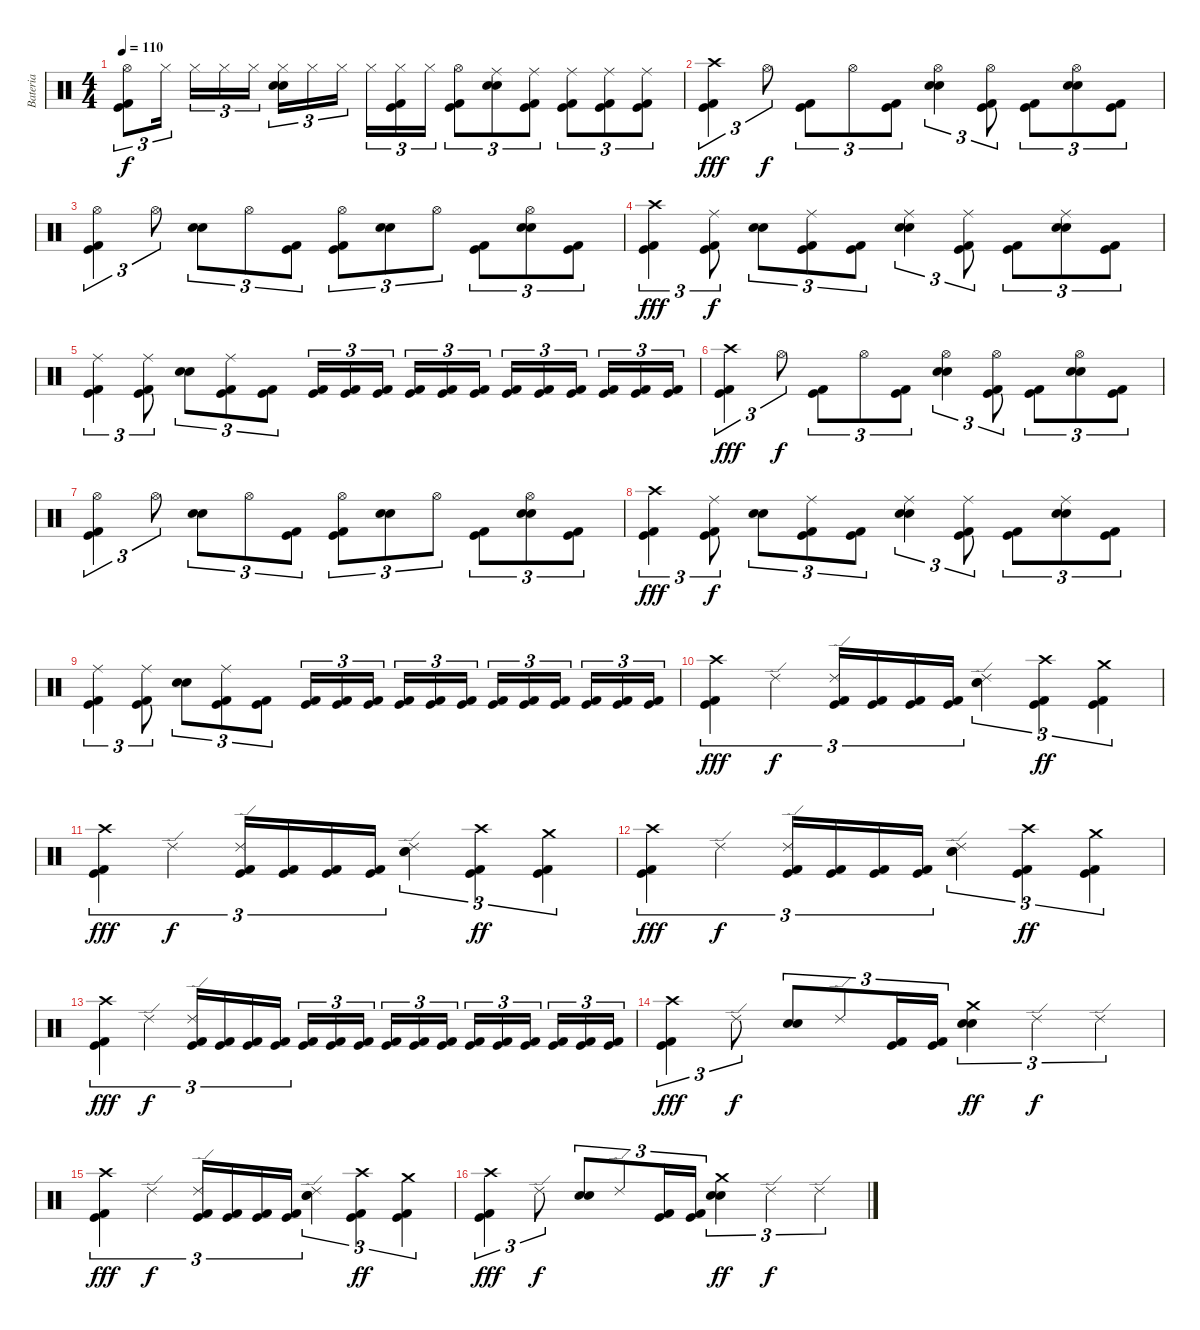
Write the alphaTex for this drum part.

\track ("Bateria" "Bateria") {instrument percussion}
\staff {score}
\articulation defaults
\ts (4 4)
\tempo 110
\clef neutral
\ks c
("Hi-Hat (open)" "Kick (hit) 2" "Kick (hit)").8{tu (3 2) dy f} "Hi-Hat (closed)".16{tu (3 2)} "Hi-Hat (closed)".16{tu (3 2)} "Hi-Hat (closed)".16{tu (3 2)} "Hi-Hat (closed)".16{tu (3 2)} ("Hi-Hat (closed)" "Electric Snare (hit)" "Snare (hit) 2").16{tu (3 2)} "Hi-Hat (closed)".16{tu (3 2)} "Hi-Hat (closed)".16{tu (3 2)} "Hi-Hat (closed)".16{tu (3 2)} ("Hi-Hat (closed)" "Kick (hit) 2" "Kick (hit)").16{tu (3 2)} "Hi-Hat (closed)".16{tu (3 2)} ("Hi-Hat (open)" "Kick (hit) 2" "Kick (hit)").8{tu (3 2)} ("Ride (middle)" "Electric Snare (hit)" "Snare (hit) 2").8{tu (3 2)} ("Ride (middle)" "Kick (hit) 2" "Kick (hit)").8{tu (3 2)} ("Ride (middle)" "Kick (hit) 2" "Kick (hit)").8{tu (3 2)} ("Ride (middle)" "Kick (hit) 2" "Kick (hit)").8{tu (3 2)} ("Ride (middle)" "Kick (hit) 2" "Kick (hit)").8{tu (3 2)} |
("Crash high (hit)" "Kick (hit) 2" "Kick (hit)").4{tu (3 2) dy fff} "Hi-Hat (open)".8{tu (3 2) dy f} ("Kick (hit) 2" "Kick (hit)").8{tu (3 2)} "Hi-Hat (open)".8{tu (3 2)} ("Kick (hit) 2" "Kick (hit)").8{tu (3 2)} ("Hi-Hat (open)" "Electric Snare (hit)" "Snare (hit) 2").4{tu (3 2)} ("Hi-Hat (open)" "Kick (hit) 2" "Kick (hit)").8{tu (3 2)} ("Kick (hit) 2" "Kick (hit)").8{tu (3 2)} ("Hi-Hat (open)" "Electric Snare (hit)" "Snare (hit) 2").8{tu (3 2)} ("Kick (hit) 2" "Kick (hit)").8{tu (3 2)} |
("Hi-Hat (open)" "Kick (hit) 2" "Kick (hit)").4{tu (3 2)} "Hi-Hat (open)".8{tu (3 2)} ("Electric Snare (hit)" "Snare (hit) 2").8{tu (3 2)} "Hi-Hat (open)".8{tu (3 2)} ("Kick (hit) 2" "Kick (hit)").8{tu (3 2)} ("Hi-Hat (open)" "Kick (hit) 2" "Kick (hit)").8{tu (3 2)} ("Electric Snare (hit)" "Snare (hit) 2").8{tu (3 2)} "Hi-Hat (open)".8{tu (3 2)} ("Kick (hit) 2" "Kick (hit)").8{tu (3 2)} ("Hi-Hat (open)" "Electric Snare (hit)" "Snare (hit) 2").8{tu (3 2)} ("Kick (hit) 2" "Kick (hit)").8{tu (3 2)} |
("Crash high (hit)" "Kick (hit) 2" "Kick (hit)").4{tu (3 2) dy fff} ("Ride (middle)" "Kick (hit) 2" "Kick (hit)").8{tu (3 2) dy f} ("Electric Snare (hit)" "Snare (hit) 2").8{tu (3 2)} ("Ride (middle)" "Kick (hit) 2" "Kick (hit)").8{tu (3 2)} ("Kick (hit) 2" "Kick (hit)").8{tu (3 2)} ("Ride (middle)" "Electric Snare (hit)" "Snare (hit) 2").4{tu (3 2)} ("Ride (middle)" "Kick (hit) 2" "Kick (hit)").8{tu (3 2)} ("Kick (hit) 2" "Kick (hit)").8{tu (3 2)} ("Ride (middle)" "Electric Snare (hit)" "Snare (hit) 2").8{tu (3 2)} ("Kick (hit) 2" "Kick (hit)").8{tu (3 2)} |
("Ride (middle)" "Kick (hit) 2" "Kick (hit)").4{tu (3 2)} ("Ride (middle)" "Kick (hit) 2" "Kick (hit)").8{tu (3 2)} ("Electric Snare (hit)" "Snare (hit) 2").8{tu (3 2)} ("Ride (middle)" "Kick (hit) 2" "Kick (hit)").8{tu (3 2)} ("Kick (hit) 2" "Kick (hit)").8{tu (3 2)} ("Kick (hit) 2" "Kick (hit)").16{tu (3 2)} ("Kick (hit) 2" "Kick (hit)").16{tu (3 2)} ("Kick (hit) 2" "Kick (hit)").16{tu (3 2)} ("Kick (hit) 2" "Kick (hit)").16{tu (3 2)} ("Kick (hit) 2" "Kick (hit)").16{tu (3 2)} ("Kick (hit) 2" "Kick (hit)").16{tu (3 2)} ("Kick (hit) 2" "Kick (hit)").16{tu (3 2)} ("Kick (hit) 2" "Kick (hit)").16{tu (3 2)} ("Kick (hit) 2" "Kick (hit)").16{tu (3 2)} ("Kick (hit) 2" "Kick (hit)").16{tu (3 2)} ("Kick (hit) 2" "Kick (hit)").16{tu (3 2)} ("Kick (hit) 2" "Kick (hit)").16{tu (3 2)} |
("Crash high (hit)" "Kick (hit) 2" "Kick (hit)").4{tu (3 2) dy fff} "Hi-Hat (open)".8{tu (3 2) dy f} ("Kick (hit) 2" "Kick (hit)").8{tu (3 2)} "Hi-Hat (open)".8{tu (3 2)} ("Kick (hit) 2" "Kick (hit)").8{tu (3 2)} ("Hi-Hat (open)" "Electric Snare (hit)" "Snare (hit) 2").4{tu (3 2)} ("Hi-Hat (open)" "Kick (hit) 2" "Kick (hit)").8{tu (3 2)} ("Kick (hit) 2" "Kick (hit)").8{tu (3 2)} ("Hi-Hat (open)" "Electric Snare (hit)" "Snare (hit) 2").8{tu (3 2)} ("Kick (hit) 2" "Kick (hit)").8{tu (3 2)} |
("Hi-Hat (open)" "Kick (hit) 2" "Kick (hit)").4{tu (3 2)} "Hi-Hat (open)".8{tu (3 2)} ("Electric Snare (hit)" "Snare (hit) 2").8{tu (3 2)} "Hi-Hat (open)".8{tu (3 2)} ("Kick (hit) 2" "Kick (hit)").8{tu (3 2)} ("Hi-Hat (open)" "Kick (hit) 2" "Kick (hit)").8{tu (3 2)} ("Electric Snare (hit)" "Snare (hit) 2").8{tu (3 2)} "Hi-Hat (open)".8{tu (3 2)} ("Kick (hit) 2" "Kick (hit)").8{tu (3 2)} ("Hi-Hat (open)" "Electric Snare (hit)" "Snare (hit) 2").8{tu (3 2)} ("Kick (hit) 2" "Kick (hit)").8{tu (3 2)} |
("Crash high (hit)" "Kick (hit) 2" "Kick (hit)").4{tu (3 2) dy fff} ("Ride (middle)" "Kick (hit) 2" "Kick (hit)").8{tu (3 2) dy f} ("Electric Snare (hit)" "Snare (hit) 2").8{tu (3 2)} ("Ride (middle)" "Kick (hit) 2" "Kick (hit)").8{tu (3 2)} ("Kick (hit) 2" "Kick (hit)").8{tu (3 2)} ("Ride (middle)" "Electric Snare (hit)" "Snare (hit) 2").4{tu (3 2)} ("Ride (middle)" "Kick (hit) 2" "Kick (hit)").8{tu (3 2)} ("Kick (hit) 2" "Kick (hit)").8{tu (3 2)} ("Ride (middle)" "Electric Snare (hit)" "Snare (hit) 2").8{tu (3 2)} ("Kick (hit) 2" "Kick (hit)").8{tu (3 2)} |
("Ride (middle)" "Kick (hit) 2" "Kick (hit)").4{tu (3 2)} ("Ride (middle)" "Kick (hit) 2" "Kick (hit)").8{tu (3 2)} ("Electric Snare (hit)" "Snare (hit) 2").8{tu (3 2)} ("Ride (middle)" "Kick (hit) 2" "Kick (hit)").8{tu (3 2)} ("Kick (hit) 2" "Kick (hit)").8{tu (3 2)} ("Kick (hit) 2" "Kick (hit)").16{tu (3 2)} ("Kick (hit) 2" "Kick (hit)").16{tu (3 2)} ("Kick (hit) 2" "Kick (hit)").16{tu (3 2)} ("Kick (hit) 2" "Kick (hit)").16{tu (3 2)} ("Kick (hit) 2" "Kick (hit)").16{tu (3 2)} ("Kick (hit) 2" "Kick (hit)").16{tu (3 2)} ("Kick (hit) 2" "Kick (hit)").16{tu (3 2)} ("Kick (hit) 2" "Kick (hit)").16{tu (3 2)} ("Kick (hit) 2" "Kick (hit)").16{tu (3 2)} ("Kick (hit) 2" "Kick (hit)").16{tu (3 2)} ("Kick (hit) 2" "Kick (hit)").16{tu (3 2)} ("Kick (hit) 2" "Kick (hit)").16{tu (3 2)} |
("Crash high (hit)" "Kick (hit) 2" "Kick (hit)").4{tu (3 2) dy fff} "Ride (edge) 2".4{tu (3 2) dy f} ("Ride (edge) 2" "Kick (hit) 2" "Kick (hit)").16{tu (3 2)} ("Kick (hit) 2" "Kick (hit)").16{tu (3 2)} ("Kick (hit) 2" "Kick (hit)").16{tu (3 2)} ("Kick (hit) 2" "Kick (hit)").16{tu (3 2)} ("Ride (edge) 2" "Electric Snare (hit)" "Snare (hit) 2").4{tu (3 2)} ("Crash high (hit)" "Kick (hit) 2" "Kick (hit)").4{tu (3 2) dy ff} ("Crash medium (hit)" "Kick (hit) 2" "Kick (hit)").4{tu (3 2)} |
("Crash high (hit)" "Kick (hit) 2" "Kick (hit)").4{tu (3 2) dy fff} "Ride (edge) 2".4{tu (3 2) dy f} ("Ride (edge) 2" "Kick (hit) 2" "Kick (hit)").16{tu (3 2)} ("Kick (hit) 2" "Kick (hit)").16{tu (3 2)} ("Kick (hit) 2" "Kick (hit)").16{tu (3 2)} ("Kick (hit) 2" "Kick (hit)").16{tu (3 2)} ("Ride (edge) 2" "Electric Snare (hit)" "Snare (hit) 2").4{tu (3 2)} ("Crash high (hit)" "Kick (hit) 2" "Kick (hit)").4{tu (3 2) dy ff} ("Crash medium (hit)" "Kick (hit) 2" "Kick (hit)").4{tu (3 2)} |
("Crash high (hit)" "Kick (hit) 2" "Kick (hit)").4{tu (3 2) dy fff} "Ride (edge) 2".4{tu (3 2) dy f} ("Ride (edge) 2" "Kick (hit) 2" "Kick (hit)").16{tu (3 2)} ("Kick (hit) 2" "Kick (hit)").16{tu (3 2)} ("Kick (hit) 2" "Kick (hit)").16{tu (3 2)} ("Kick (hit) 2" "Kick (hit)").16{tu (3 2)} ("Ride (edge) 2" "Electric Snare (hit)" "Snare (hit) 2").4{tu (3 2)} ("Crash high (hit)" "Kick (hit) 2" "Kick (hit)").4{tu (3 2) dy ff} ("Crash medium (hit)" "Kick (hit) 2" "Kick (hit)").4{tu (3 2)} |
("Crash high (hit)" "Kick (hit) 2" "Kick (hit)").4{tu (3 2) dy fff} "Ride (edge) 2".4{tu (3 2) dy f} ("Ride (edge) 2" "Kick (hit) 2" "Kick (hit)").16{tu (3 2)} ("Kick (hit) 2" "Kick (hit)").16{tu (3 2)} ("Kick (hit) 2" "Kick (hit)").16{tu (3 2)} ("Kick (hit) 2" "Kick (hit)").16{tu (3 2)} ("Kick (hit) 2" "Kick (hit)").16{tu (3 2)} ("Kick (hit) 2" "Kick (hit)").16{tu (3 2)} ("Kick (hit) 2" "Kick (hit)").16{tu (3 2)} ("Kick (hit) 2" "Kick (hit)").16{tu (3 2)} ("Kick (hit) 2" "Kick (hit)").16{tu (3 2)} ("Kick (hit) 2" "Kick (hit)").16{tu (3 2)} ("Kick (hit) 2" "Kick (hit)").16{tu (3 2)} ("Kick (hit) 2" "Kick (hit)").16{tu (3 2)} ("Kick (hit) 2" "Kick (hit)").16{tu (3 2)} ("Kick (hit) 2" "Kick (hit)").16{tu (3 2)} ("Kick (hit) 2" "Kick (hit)").16{tu (3 2)} ("Kick (hit) 2" "Kick (hit)").16{tu (3 2)} |
("Crash high (hit)" "Kick (hit) 2" "Kick (hit)").4{tu (3 2) dy fff} "Ride (edge) 2".8{tu (3 2) dy f} ("Electric Snare (hit)" "Snare (hit) 2").8{tu (3 2)} "Ride (edge) 2".8{tu (3 2)} ("Kick (hit) 2" "Kick (hit)").16{tu (3 2)} ("Kick (hit) 2" "Kick (hit)").16{tu (3 2)} ("Crash medium (hit)" "Electric Snare (hit)" "Snare (hit) 2").4{tu (3 2) dy ff} "Ride (edge) 2".4{tu (3 2) dy f} "Ride (edge) 2".4{tu (3 2)} |
("Crash high (hit)" "Kick (hit) 2" "Kick (hit)").4{tu (3 2) dy fff} "Ride (edge) 2".4{tu (3 2) dy f} ("Ride (edge) 2" "Kick (hit) 2" "Kick (hit)").16{tu (3 2)} ("Kick (hit) 2" "Kick (hit)").16{tu (3 2)} ("Kick (hit) 2" "Kick (hit)").16{tu (3 2)} ("Kick (hit) 2" "Kick (hit)").16{tu (3 2)} ("Ride (edge) 2" "Electric Snare (hit)" "Snare (hit) 2").4{tu (3 2)} ("Crash high (hit)" "Kick (hit) 2" "Kick (hit)").4{tu (3 2) dy ff} ("Crash medium (hit)" "Kick (hit) 2" "Kick (hit)").4{tu (3 2)} |
("Crash high (hit)" "Kick (hit) 2" "Kick (hit)").4{tu (3 2) dy fff} "Ride (edge) 2".8{tu (3 2) dy f} ("Electric Snare (hit)" "Snare (hit) 2").8{tu (3 2)} "Ride (edge) 2".8{tu (3 2)} ("Kick (hit) 2" "Kick (hit)").16{tu (3 2)} ("Kick (hit) 2" "Kick (hit)").16{tu (3 2)} ("Crash medium (hit)" "Electric Snare (hit)" "Snare (hit) 2").4{tu (3 2) dy ff} "Ride (edge) 2".4{tu (3 2) dy f} "Ride (edge) 2".4{tu (3 2)}
